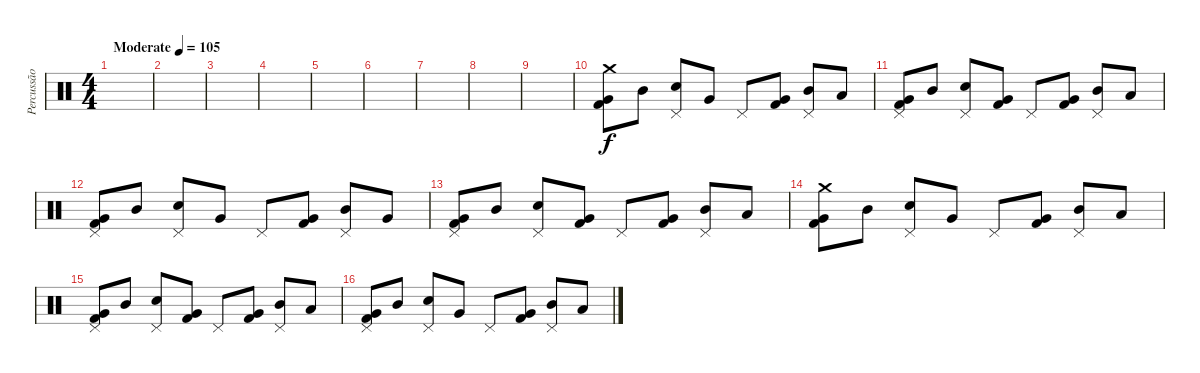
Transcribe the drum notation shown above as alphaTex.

\track ("Percussão" "Percussão") {instrument percussion}
\staff {score}
\articulation defaults
\ts (4 4)
\tempo (105 "Moderate")
\clef neutral
\ks c
|
|
|
|
|
|
|
|
|
("Crash medium (hit)" "Very Low Tom (hit)" "Kick (hit) 2").8 "Mid Tom (hit)".8 ("Pedal Hi-Hat (hit)" "Snare (hit) 2").8 "Very Low Tom (hit)".8 "Pedal Hi-Hat (hit)".8 ("Very Low Tom (hit)" "Kick (hit) 2").8 ("Pedal Hi-Hat (hit)" "Mid Tom (hit)").8 "Low Tom (hit)".8 |
("Pedal Hi-Hat (hit)" "Very Low Tom (hit)" "Kick (hit) 2").8 "Mid Tom (hit)".8 ("Pedal Hi-Hat (hit)" "Snare (hit) 2").8 ("Very Low Tom (hit)" "Kick (hit) 2").8 "Pedal Hi-Hat (hit)".8 ("Very Low Tom (hit)" "Kick (hit) 2").8 ("Pedal Hi-Hat (hit)" "Mid Tom (hit)").8 "Low Tom (hit)".8 |
("Pedal Hi-Hat (hit)" "Very Low Tom (hit)" "Kick (hit) 2").8 "Mid Tom (hit)".8 ("Pedal Hi-Hat (hit)" "Snare (hit) 2").8 "Very Low Tom (hit)".8 "Pedal Hi-Hat (hit)".8 ("Very Low Tom (hit)" "Kick (hit) 2").8 ("Pedal Hi-Hat (hit)" "Mid Tom (hit)").8 "Very Low Tom (hit)".8 |
("Pedal Hi-Hat (hit)" "Very Low Tom (hit)" "Kick (hit) 2").8 "Mid Tom (hit)".8 ("Pedal Hi-Hat (hit)" "Snare (hit) 2").8 ("Very Low Tom (hit)" "Kick (hit) 2").8 "Pedal Hi-Hat (hit)".8 ("Very Low Tom (hit)" "Kick (hit) 2").8 ("Pedal Hi-Hat (hit)" "Mid Tom (hit)").8 "Low Tom (hit)".8 |
("Crash medium (hit)" "Very Low Tom (hit)" "Kick (hit) 2").8 "Mid Tom (hit)".8 ("Pedal Hi-Hat (hit)" "Snare (hit) 2").8 "Very Low Tom (hit)".8 "Pedal Hi-Hat (hit)".8 ("Very Low Tom (hit)" "Kick (hit) 2").8 ("Pedal Hi-Hat (hit)" "Mid Tom (hit)").8 "Low Tom (hit)".8 |
("Pedal Hi-Hat (hit)" "Very Low Tom (hit)" "Kick (hit) 2").8 "Mid Tom (hit)".8 ("Pedal Hi-Hat (hit)" "Snare (hit) 2").8 ("Very Low Tom (hit)" "Kick (hit) 2").8 "Pedal Hi-Hat (hit)".8 ("Very Low Tom (hit)" "Kick (hit) 2").8 ("Pedal Hi-Hat (hit)" "Mid Tom (hit)").8 "Low Tom (hit)".8 |
("Pedal Hi-Hat (hit)" "Very Low Tom (hit)" "Kick (hit) 2").8 "Mid Tom (hit)".8 ("Pedal Hi-Hat (hit)" "Snare (hit) 2").8 "Very Low Tom (hit)".8 "Pedal Hi-Hat (hit)".8 ("Very Low Tom (hit)" "Kick (hit) 2").8 ("Pedal Hi-Hat (hit)" "Mid Tom (hit)").8 "Low Tom (hit)".8
